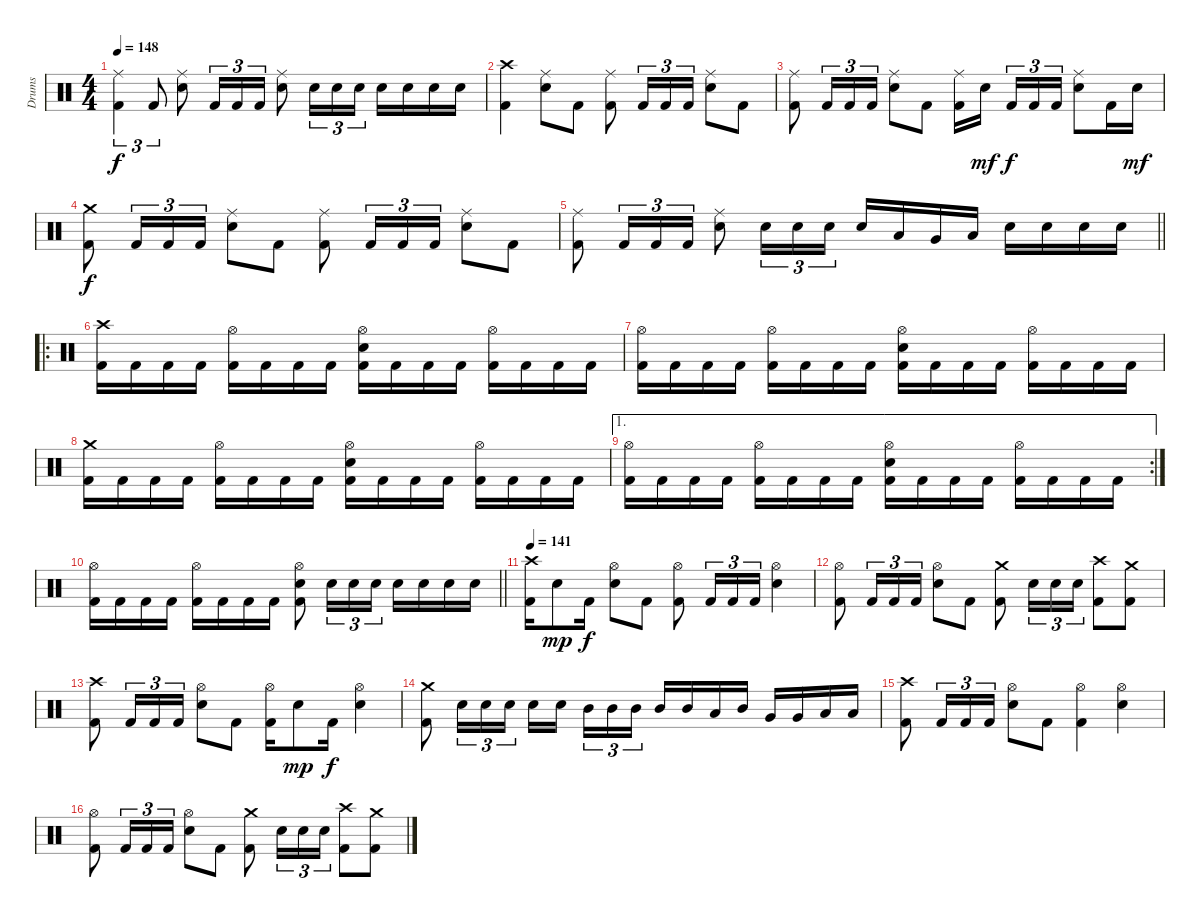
\track ("Drums" "Drums") {instrument percussion}
\staff {score}
\articulation defaults
\ts (4 4)
\tempo 148
\clef neutral
\ks c
("Ride (middle)" "Kick (hit) 2").4{tu (3 2) dy f} "Kick (hit) 2".8{tu (3 2)} ("Ride (middle)" "Electric Snare (hit)").8 "Kick (hit) 2".16{tu (3 2)} "Kick (hit) 2".16{tu (3 2)} "Kick (hit) 2".16{tu (3 2)} ("Ride (middle)" "Electric Snare (hit)").8 "Electric Snare (hit)".16{tu (3 2)} "Electric Snare (hit)".16{tu (3 2)} "Electric Snare (hit)".16{tu (3 2)} "Electric Snare (hit)".16 "Electric Snare (hit)".16 "Electric Snare (hit)".16 "Electric Snare (hit)".16 |
("Crash high (hit)" "Kick (hit) 2").4 ("Ride (middle)" "Electric Snare (hit)").8 "Kick (hit) 2".8 ("Ride (middle)" "Kick (hit) 2").8 "Kick (hit) 2".16{tu (3 2)} "Kick (hit) 2".16{tu (3 2)} "Kick (hit) 2".16{tu (3 2)} ("Ride (middle)" "Electric Snare (hit)").8 "Kick (hit) 2".8 |
("Ride (middle)" "Kick (hit) 2").8 "Kick (hit) 2".16{tu (3 2)} "Kick (hit) 2".16{tu (3 2)} "Kick (hit) 2".16{tu (3 2)} ("Ride (middle)" "Electric Snare (hit)").8 "Kick (hit) 2".8 ("Ride (middle)" "Kick (hit) 2").16 "Electric Snare (hit)".16{dy mf beam splitsecondary} "Kick (hit) 2".16{tu (3 2) dy f} "Kick (hit) 2".16{tu (3 2)} "Kick (hit) 2".16{tu (3 2)} ("Ride (middle)" "Electric Snare (hit)").8 "Kick (hit) 2".16 "Electric Snare (hit)".16{dy mf} |
("Crash medium (hit)" "Kick (hit) 2").8{dy f} "Kick (hit) 2".16{tu (3 2)} "Kick (hit) 2".16{tu (3 2)} "Kick (hit) 2".16{tu (3 2)} ("Ride (middle)" "Electric Snare (hit)").8 "Kick (hit) 2".8 ("Ride (middle)" "Kick (hit) 2").8 "Kick (hit) 2".16{tu (3 2)} "Kick (hit) 2".16{tu (3 2)} "Kick (hit) 2".16{tu (3 2)} ("Ride (middle)" "Electric Snare (hit)").8 "Kick (hit) 2".8 |
\barLineRight lightlight
("Ride (middle)" "Kick (hit) 2").8 "Kick (hit) 2".16{tu (3 2)} "Kick (hit) 2".16{tu (3 2)} "Kick (hit) 2".16{tu (3 2)} ("Ride (middle)" "Electric Snare (hit)").8 "Electric Snare (hit)".16{tu (3 2)} "Electric Snare (hit)".16{tu (3 2)} "Electric Snare (hit)".16{tu (3 2)} "Electric Snare (hit)".16 "Low Tom (hit)".16 "Very Low Tom (hit)".16 "Low Floor Tom (hit)".16 "Electric Snare (hit)".16 "Electric Snare (hit)".16 "Electric Snare (hit)".16 "Electric Snare (hit)".16 |
\ro
\section ("" "")
("Crash high (hit)" "Kick (hit) 2").16 "Kick (hit) 2".16 "Kick (hit) 2".16 "Kick (hit) 2".16 ("Hi-Hat (open)" "Kick (hit) 2").16 "Kick (hit) 2".16 "Kick (hit) 2".16 "Kick (hit) 2".16 ("Hi-Hat (open)" "Electric Snare (hit)" "Kick (hit) 2").16 "Kick (hit) 2".16 "Kick (hit) 2".16 "Kick (hit) 2".16 ("Hi-Hat (open)" "Kick (hit) 2").16 "Kick (hit) 2".16 "Kick (hit) 2".16 "Kick (hit) 2".16 |
("Hi-Hat (open)" "Kick (hit) 2").16 "Kick (hit) 2".16 "Kick (hit) 2".16 "Kick (hit) 2".16 ("Hi-Hat (open)" "Kick (hit) 2").16 "Kick (hit) 2".16 "Kick (hit) 2".16 "Kick (hit) 2".16 ("Hi-Hat (open)" "Electric Snare (hit)" "Kick (hit) 2").16 "Kick (hit) 2".16 "Kick (hit) 2".16 "Kick (hit) 2".16 ("Hi-Hat (open)" "Kick (hit) 2").16 "Kick (hit) 2".16 "Kick (hit) 2".16 "Kick (hit) 2".16 |
("Crash medium (hit)" "Kick (hit) 2").16 "Kick (hit) 2".16 "Kick (hit) 2".16 "Kick (hit) 2".16 ("Hi-Hat (open)" "Kick (hit) 2").16 "Kick (hit) 2".16 "Kick (hit) 2".16 "Kick (hit) 2".16 ("Hi-Hat (open)" "Electric Snare (hit)" "Kick (hit) 2").16 "Kick (hit) 2".16 "Kick (hit) 2".16 "Kick (hit) 2".16 ("Hi-Hat (open)" "Kick (hit) 2").16 "Kick (hit) 2".16 "Kick (hit) 2".16 "Kick (hit) 2".16 |
\ae 1
\rc 2
("Hi-Hat (open)" "Kick (hit) 2").16 "Kick (hit) 2".16 "Kick (hit) 2".16 "Kick (hit) 2".16 ("Hi-Hat (open)" "Kick (hit) 2").16 "Kick (hit) 2".16 "Kick (hit) 2".16 "Kick (hit) 2".16 ("Hi-Hat (open)" "Electric Snare (hit)" "Kick (hit) 2").16 "Kick (hit) 2".16 "Kick (hit) 2".16 "Kick (hit) 2".16 ("Hi-Hat (open)" "Kick (hit) 2").16 "Kick (hit) 2".16 "Kick (hit) 2".16 "Kick (hit) 2".16 |
\barLineRight lightlight
("Hi-Hat (open)" "Kick (hit) 2").16 "Kick (hit) 2".16 "Kick (hit) 2".16 "Kick (hit) 2".16 ("Hi-Hat (open)" "Kick (hit) 2").16 "Kick (hit) 2".16 "Kick (hit) 2".16 "Kick (hit) 2".16 ("Hi-Hat (open)" "Electric Snare (hit)" "Kick (hit) 2").8 "Electric Snare (hit)".16{tu (3 2)} "Electric Snare (hit)".16{tu (3 2)} "Electric Snare (hit)".16{tu (3 2)} "Electric Snare (hit)".16 "Electric Snare (hit)".16 "Electric Snare (hit)".16 "Electric Snare (hit)".16 |
\section ("" "")
\tempo 141
("Crash high (hit)" "Kick (hit) 2").16 "Electric Snare (hit)".8{dy mp} "Kick (hit) 2".16{dy f} ("Hi-Hat (open)" "Electric Snare (hit)").8 "Kick (hit) 2".8 ("Hi-Hat (open)" "Kick (hit) 2").8 "Kick (hit) 2".16{tu (3 2)} "Kick (hit) 2".16{tu (3 2)} "Kick (hit) 2".16{tu (3 2)} ("Hi-Hat (open)" "Electric Snare (hit)").4 |
("Hi-Hat (open)" "Kick (hit) 2").8 "Kick (hit) 2".16{tu (3 2)} "Kick (hit) 2".16{tu (3 2)} "Kick (hit) 2".16{tu (3 2)} ("Hi-Hat (open)" "Electric Snare (hit)").8 "Kick (hit) 2".8 ("Crash medium (hit)" "Kick (hit) 2").8 "Electric Snare (hit)".16{tu (3 2)} "Electric Snare (hit)".16{tu (3 2)} "Electric Snare (hit)".16{tu (3 2)} ("Crash high (hit)" "Kick (hit) 2").8 ("Crash medium (hit)" "Kick (hit) 2").8 |
("Crash high (hit)" "Kick (hit) 2").8 "Kick (hit) 2".16{tu (3 2)} "Kick (hit) 2".16{tu (3 2)} "Kick (hit) 2".16{tu (3 2)} ("Hi-Hat (open)" "Electric Snare (hit)").8 "Kick (hit) 2".8 ("Hi-Hat (open)" "Kick (hit) 2").16 "Electric Snare (hit)".8{dy mp} "Kick (hit) 2".16{dy f} ("Hi-Hat (open)" "Electric Snare (hit)").4 |
("Crash medium (hit)" "Kick (hit) 2").8 "Electric Snare (hit)".16{tu (3 2)} "Electric Snare (hit)".16{tu (3 2)} "Electric Snare (hit)".16{tu (3 2)} "Electric Snare (hit)".16 "Electric Snare (hit)".16{beam splitsecondary} "Mid Tom (hit)".16{tu (3 2)} "Mid Tom (hit)".16{tu (3 2)} "Mid Tom (hit)".16{tu (3 2)} "Mid Tom (hit)".16 "Mid Tom (hit)".16 "Low Tom (hit)".16 "Mid Tom (hit)".16 "Very Low Tom (hit)".16 "Very Low Tom (hit)".16 "Low Floor Tom (hit)".16 "Low Floor Tom (hit)".16 |
("Crash high (hit)" "Kick (hit) 2").8 "Kick (hit) 2".16{tu (3 2)} "Kick (hit) 2".16{tu (3 2)} "Kick (hit) 2".16{tu (3 2)} ("Hi-Hat (open)" "Electric Snare (hit)").8 "Kick (hit) 2".8 ("Hi-Hat (open)" "Kick (hit) 2").4 ("Hi-Hat (open)" "Electric Snare (hit)").4 |
("Hi-Hat (open)" "Kick (hit) 2").8 "Kick (hit) 2".16{tu (3 2)} "Kick (hit) 2".16{tu (3 2)} "Kick (hit) 2".16{tu (3 2)} ("Hi-Hat (open)" "Electric Snare (hit)").8 "Kick (hit) 2".8 ("Crash medium (hit)" "Kick (hit) 2").8 "Electric Snare (hit)".16{tu (3 2)} "Electric Snare (hit)".16{tu (3 2)} "Electric Snare (hit)".16{tu (3 2)} ("Crash high (hit)" "Kick (hit) 2").8 ("Crash medium (hit)" "Kick (hit) 2").8
